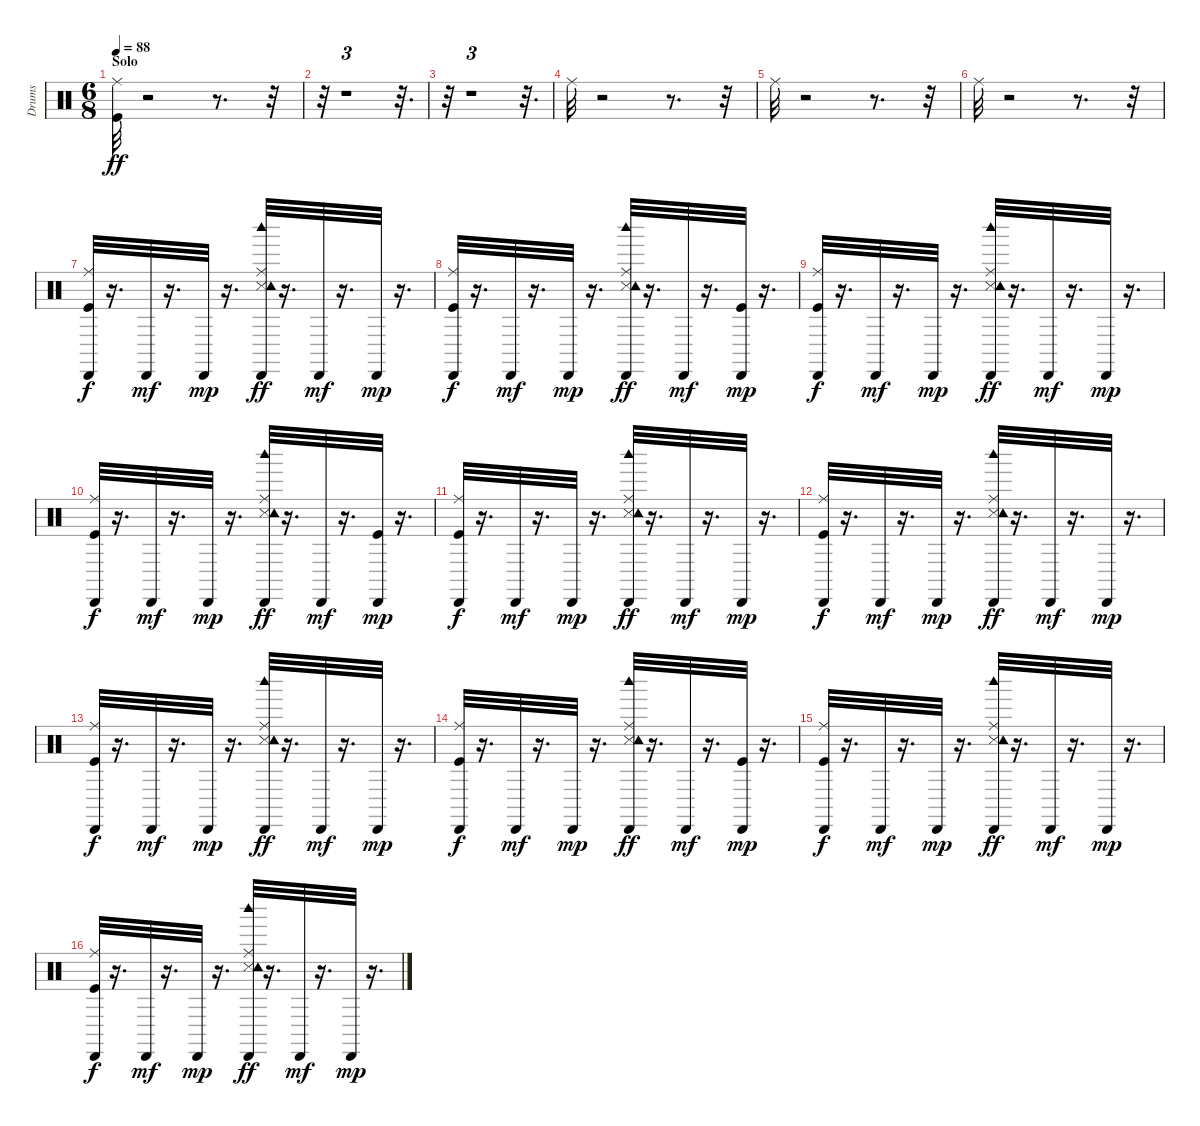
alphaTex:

\track ("Drums               " "Drums     ") {instrument percussion}
\staff {score}
\articulation defaults
\ts (6 8)
\section ("" "Solo")
\tempo 88
\clef neutral
\ks c
("Kick (hit)" "Ride (middle)").32{dy ff} r.2 r.8{d} r.32 |
r.32 r.1{tu (3 2)} r.32{d} |
r.32 r.1{tu (3 2)} r.32{d} |
"Ride (middle)".32 r.2 r.8{d} r.32 |
"Ride (middle)".32 r.2 r.8{d} r.32 |
"Ride (middle)".32 r.2 r.8{d} r.32 |
("Kick (hit)" "Ride (middle)" "Cabasa (hit)").32{dy f} r.16{d} "Cabasa (hit)".32{dy mf} r.16{d} "Cabasa (hit)".32{dy mp} r.16{d} ("Snare (side stick) 3" "Ride (middle)" "Tambourine (hit)" "Cabasa (hit)" "Woodblock high (hit)").32{dy ff} r.16{d} "Cabasa (hit)".32{dy mf} r.16{d} "Cabasa (hit)".32{dy mp} r.16{d} |
("Kick (hit)" "Ride (middle)" "Cabasa (hit)").32{dy f} r.16{d} "Cabasa (hit)".32{dy mf} r.16{d} "Cabasa (hit)".32{dy mp} r.16{d} ("Snare (side stick) 3" "Ride (middle)" "Tambourine (hit)" "Cabasa (hit)" "Woodblock high (hit)").32{dy ff} r.16{d} "Cabasa (hit)".32{dy mf} r.16{d} ("Kick (hit)" "Cabasa (hit)").32{dy mp} r.16{d} |
("Kick (hit)" "Ride (middle)" "Cabasa (hit)").32{dy f} r.16{d} "Cabasa (hit)".32{dy mf} r.16{d} "Cabasa (hit)".32{dy mp} r.16{d} ("Snare (side stick) 3" "Ride (middle)" "Tambourine (hit)" "Cabasa (hit)" "Woodblock high (hit)").32{dy ff} r.16{d} "Cabasa (hit)".32{dy mf} r.16{d} "Cabasa (hit)".32{dy mp} r.16{d} |
("Kick (hit)" "Ride (middle)" "Cabasa (hit)").32{dy f} r.16{d} "Cabasa (hit)".32{dy mf} r.16{d} "Cabasa (hit)".32{dy mp} r.16{d} ("Snare (side stick) 3" "Ride (middle)" "Tambourine (hit)" "Cabasa (hit)" "Woodblock high (hit)").32{dy ff} r.16{d} "Cabasa (hit)".32{dy mf} r.16{d} ("Kick (hit)" "Cabasa (hit)").32{dy mp} r.16{d} |
("Kick (hit)" "Ride (middle)" "Cabasa (hit)").32{dy f} r.16{d} "Cabasa (hit)".32{dy mf} r.16{d} "Cabasa (hit)".32{dy mp} r.16{d} ("Snare (side stick) 3" "Ride (middle)" "Tambourine (hit)" "Cabasa (hit)" "Woodblock high (hit)").32{dy ff} r.16{d} "Cabasa (hit)".32{dy mf} r.16{d} "Cabasa (hit)".32{dy mp} r.16{d} |
("Kick (hit)" "Ride (middle)" "Cabasa (hit)").32{dy f} r.16{d} "Cabasa (hit)".32{dy mf} r.16{d} "Cabasa (hit)".32{dy mp} r.16{d} ("Snare (side stick) 3" "Ride (middle)" "Tambourine (hit)" "Cabasa (hit)" "Woodblock high (hit)").32{dy ff} r.16{d} "Cabasa (hit)".32{dy mf} r.16{d} "Cabasa (hit)".32{dy mp} r.16{d} |
("Kick (hit)" "Ride (middle)" "Cabasa (hit)").32{dy f} r.16{d} "Cabasa (hit)".32{dy mf} r.16{d} "Cabasa (hit)".32{dy mp} r.16{d} ("Snare (side stick) 3" "Ride (middle)" "Tambourine (hit)" "Cabasa (hit)" "Woodblock high (hit)").32{dy ff} r.16{d} "Cabasa (hit)".32{dy mf} r.16{d} "Cabasa (hit)".32{dy mp} r.16{d} |
("Kick (hit)" "Ride (middle)" "Cabasa (hit)").32{dy f} r.16{d} "Cabasa (hit)".32{dy mf} r.16{d} "Cabasa (hit)".32{dy mp} r.16{d} ("Snare (side stick) 3" "Ride (middle)" "Tambourine (hit)" "Cabasa (hit)" "Woodblock high (hit)").32{dy ff} r.16{d} "Cabasa (hit)".32{dy mf} r.16{d} ("Kick (hit)" "Cabasa (hit)").32{dy mp} r.16{d} |
("Kick (hit)" "Ride (middle)" "Cabasa (hit)").32{dy f} r.16{d} "Cabasa (hit)".32{dy mf} r.16{d} "Cabasa (hit)".32{dy mp} r.16{d} ("Snare (side stick) 3" "Ride (middle)" "Tambourine (hit)" "Cabasa (hit)" "Woodblock high (hit)").32{dy ff} r.16{d} "Cabasa (hit)".32{dy mf} r.16{d} "Cabasa (hit)".32{dy mp} r.16{d} |
("Kick (hit)" "Ride (middle)" "Cabasa (hit)").32{dy f} r.16{d} "Cabasa (hit)".32{dy mf} r.16{d} "Cabasa (hit)".32{dy mp} r.16{d} ("Snare (side stick) 3" "Ride (middle)" "Tambourine (hit)" "Cabasa (hit)" "Woodblock high (hit)").32{dy ff} r.16{d} "Cabasa (hit)".32{dy mf} r.16{d} "Cabasa (hit)".32{dy mp} r.16{d}
